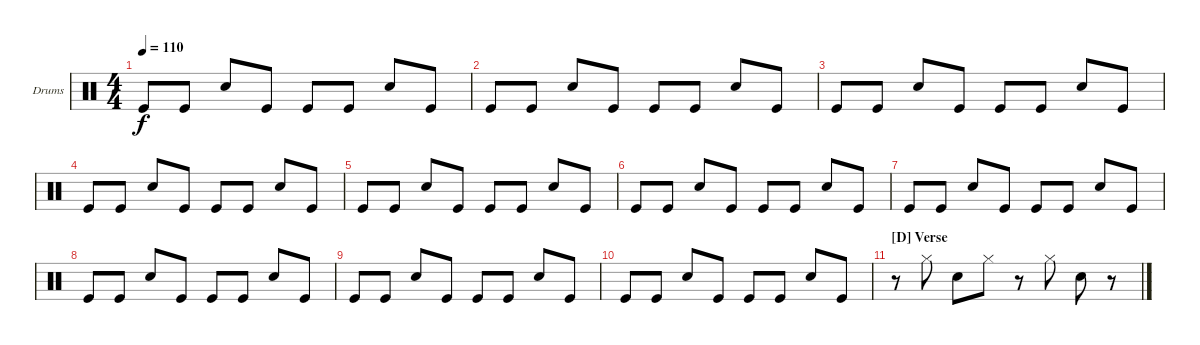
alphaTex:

\bracketExtendMode groupsimilarinstruments
\firstSystemTrackNameOrientation horizontal
\otherSystemsTrackNameOrientation horizontal
\track ("Electric Drum Kit" "Drums") {instrument percussion}
\staff {score}
\articulation defaults
\ts (4 4)
\tempo 110
\clef neutral
\ks c "Kick (hit)".8{dy f} "Kick (hit)".8 "Snare (hit) 2".8 "Kick (hit)".8 "Kick (hit)".8 "Kick (hit)".8 "Snare (hit) 2".8 "Kick (hit)".8
|
"Kick (hit)".8 "Kick (hit)".8 "Snare (hit) 2".8 "Kick (hit)".8 "Kick (hit)".8 "Kick (hit)".8 "Snare (hit) 2".8 "Kick (hit)".8 |
"Kick (hit)".8 "Kick (hit)".8 "Snare (hit) 2".8 "Kick (hit)".8 "Kick (hit)".8 "Kick (hit)".8 "Snare (hit) 2".8 "Kick (hit)".8 |
"Kick (hit)".8 "Kick (hit)".8 "Snare (hit) 2".8 "Kick (hit)".8 "Kick (hit)".8 "Kick (hit)".8 "Snare (hit) 2".8 "Kick (hit)".8 |
"Kick (hit)".8 "Kick (hit)".8 "Snare (hit) 2".8 "Kick (hit)".8 "Kick (hit)".8 "Kick (hit)".8 "Snare (hit) 2".8 "Kick (hit)".8 |
"Kick (hit)".8 "Kick (hit)".8 "Snare (hit) 2".8 "Kick (hit)".8 "Kick (hit)".8 "Kick (hit)".8 "Snare (hit) 2".8 "Kick (hit)".8 |
"Kick (hit)".8 "Kick (hit)".8 "Snare (hit) 2".8 "Kick (hit)".8 "Kick (hit)".8 "Kick (hit)".8 "Snare (hit) 2".8 "Kick (hit)".8 |
"Kick (hit)".8 "Kick (hit)".8 "Snare (hit) 2".8 "Kick (hit)".8 "Kick (hit)".8 "Kick (hit)".8 "Snare (hit) 2".8 "Kick (hit)".8 |
"Kick (hit)".8 "Kick (hit)".8 "Snare (hit) 2".8 "Kick (hit)".8 "Kick (hit)".8 "Kick (hit)".8 "Snare (hit) 2".8 "Kick (hit)".8 |
"Kick (hit)".8 "Kick (hit)".8 "Snare (hit) 2".8 "Kick (hit)".8 "Kick (hit)".8 "Kick (hit)".8 "Snare (hit) 2".8 "Kick (hit)".8 |
\section ("D" "Verse")
r.8 "Hi-Hat (closed)".8 "Snare (hit) 2".8 "Hi-Hat (closed)".8 r.8 "Hi-Hat (closed)".8 "Snare (hit) 2".8 r.8
